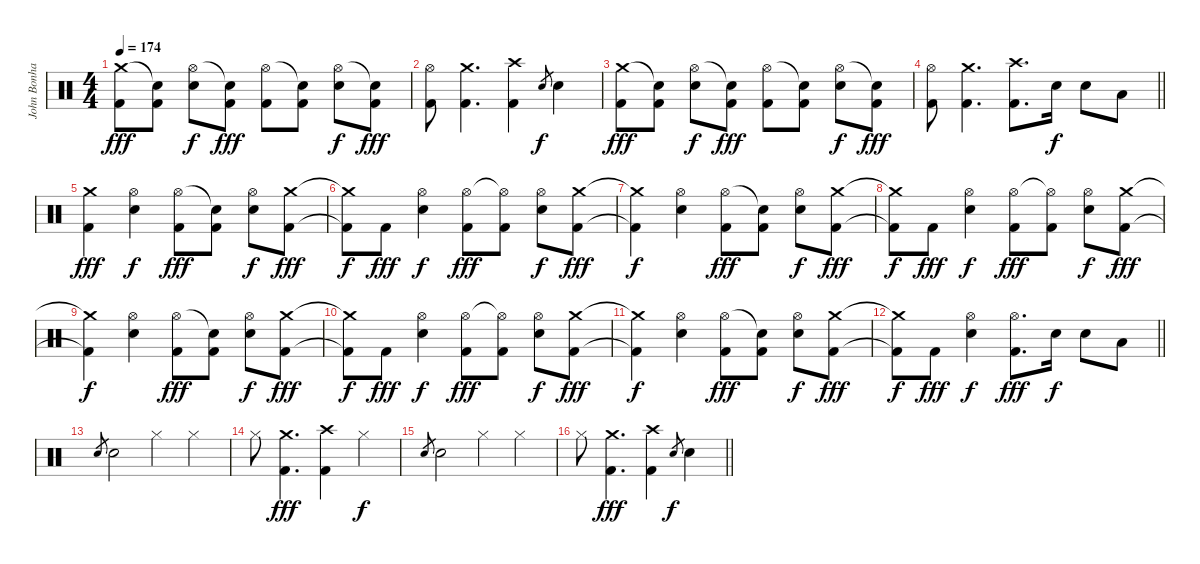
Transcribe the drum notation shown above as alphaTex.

\track ("John Bonham - Drums" "John Bonha") {instrument percussion}
\staff {score}
\articulation defaults
\ts (4 4)
\tempo 174
\clef neutral
\ks c
("Crash medium (hit)" "Kick (hit) 2").8{dy fff} ("Snare (hit)"{t} "Kick (hit) 2").8 ("Hi-Hat (open)" "Snare (hit) 2").8{dy f} ("Snare (hit)"{t} "Kick (hit) 2").8{dy fff} ("Hi-Hat (open)" "Kick (hit) 2").8 ("Snare (hit)"{t} "Kick (hit) 2").8 ("Hi-Hat (open)" "Snare (hit) 2").8{dy f} ("Snare (hit)"{t} "Kick (hit) 2").8{dy fff} |
("Hi-Hat (open)" "Kick (hit) 2").8 ("Crash medium (hit)" "Kick (hit) 2").4{d} ("Crash high (hit)" "Kick (hit) 2").4 "Snare (hit) 2".8{gr dy f} "Snare (hit) 2".4 |
("Crash medium (hit)" "Kick (hit) 2").8{dy fff} ("Snare (hit)"{t} "Kick (hit) 2").8 ("Hi-Hat (open)" "Snare (hit) 2").8{dy f} ("Snare (hit)"{t} "Kick (hit) 2").8{dy fff} ("Hi-Hat (open)" "Kick (hit) 2").8 ("Snare (hit)"{t} "Kick (hit) 2").8 ("Hi-Hat (open)" "Snare (hit) 2").8{dy f} ("Snare (hit)"{t} "Kick (hit) 2").8{dy fff} |
\barLineRight lightlight
("Hi-Hat (open)" "Kick (hit) 2").8 ("Crash medium (hit)" "Kick (hit) 2").4{d} ("Crash high (hit)" "Kick (hit) 2").8{d} "Snare (hit) 2".16{dy f} "Snare (hit) 2".8 "Low Tom (hit)".8 |
("Crash medium (hit)" "Kick (hit) 2").4{dy fff} ("Hi-Hat (open)" "Snare (hit) 2").4{dy f} ("Hi-Hat (open)" "Kick (hit) 2").8{dy fff} ("Snare (hit)"{t} "Kick (hit) 2").8 ("Hi-Hat (open)" "Snare (hit) 2").8{dy f} ("Crash medium (hit)" "Kick (hit) 2").8{dy fff} |
("Crash medium (hit)"{t} "Kick (hit) 2"{t}).8{dy f} "Kick (hit) 2".8{dy fff} ("Hi-Hat (open)" "Snare (hit) 2").4{dy f} ("Hi-Hat (open)" "Kick (hit) 2").8{dy fff} ("Hi-Hat (open)"{t} "Kick (hit) 2").8 ("Hi-Hat (open)" "Snare (hit) 2").8{dy f} ("Crash medium (hit)" "Kick (hit) 2").8{dy fff} |
("Crash medium (hit)"{t} "Kick (hit) 2"{t}).4{dy f} ("Hi-Hat (open)" "Snare (hit) 2").4 ("Hi-Hat (open)" "Kick (hit) 2").8{dy fff} ("Snare (hit)"{t} "Kick (hit) 2").8 ("Hi-Hat (open)" "Snare (hit) 2").8{dy f} ("Crash medium (hit)" "Kick (hit) 2").8{dy fff} |
("Crash medium (hit)"{t} "Kick (hit) 2"{t}).8{dy f} "Kick (hit) 2".8{dy fff} ("Hi-Hat (open)" "Snare (hit) 2").4{dy f} ("Hi-Hat (open)" "Kick (hit) 2").8{dy fff} ("Hi-Hat (open)"{t} "Kick (hit) 2").8 ("Hi-Hat (open)" "Snare (hit) 2").8{dy f} ("Crash medium (hit)" "Kick (hit) 2").8{dy fff} |
("Crash medium (hit)"{t} "Kick (hit) 2"{t}).4{dy f} ("Hi-Hat (open)" "Snare (hit) 2").4 ("Hi-Hat (open)" "Kick (hit) 2").8{dy fff} ("Snare (hit)"{t} "Kick (hit) 2").8 ("Hi-Hat (open)" "Snare (hit) 2").8{dy f} ("Crash medium (hit)" "Kick (hit) 2").8{dy fff} |
("Crash medium (hit)"{t} "Kick (hit) 2"{t}).8{dy f} "Kick (hit) 2".8{dy fff} ("Hi-Hat (open)" "Snare (hit) 2").4{dy f} ("Hi-Hat (open)" "Kick (hit) 2").8{dy fff} ("Hi-Hat (open)"{t} "Kick (hit) 2").8 ("Hi-Hat (open)" "Snare (hit) 2").8{dy f} ("Crash medium (hit)" "Kick (hit) 2").8{dy fff} |
("Crash medium (hit)"{t} "Kick (hit) 2"{t}).4{dy f} ("Hi-Hat (open)" "Snare (hit) 2").4 ("Hi-Hat (open)" "Kick (hit) 2").8{dy fff} ("Snare (hit)"{t} "Kick (hit) 2").8 ("Hi-Hat (open)" "Snare (hit) 2").8{dy f} ("Crash medium (hit)" "Kick (hit) 2").8{dy fff} |
\barLineRight lightlight
("Crash medium (hit)"{t} "Kick (hit) 2"{t}).8{dy f} "Kick (hit) 2".8{dy fff} ("Hi-Hat (open)" "Snare (hit) 2").4{dy f} ("Hi-Hat (open)" "Kick (hit) 2").8{d dy fff} "Snare (hit) 2".16{dy f} "Snare (hit) 2".8 "Low Tom (hit)".8 |
"Snare (hit) 2".8{gr} "Snare (hit) 2".2 "Hi-Hat (closed)".4 "Hi-Hat (closed)".4 |
"Hi-Hat (closed)".8 ("Crash medium (hit)" "Kick (hit) 2").4{d dy fff} ("Crash high (hit)" "Kick (hit) 2").4 "Hi-Hat (closed)".4{dy f} |
"Snare (hit) 2".8{gr} "Snare (hit) 2".2 "Hi-Hat (closed)".4 "Hi-Hat (closed)".4 |
\barLineRight lightlight "Hi-Hat (closed)".8
("Crash medium (hit)" "Kick (hit) 2").4{d dy fff} ("Crash high (hit)" "Kick (hit) 2").4 "Snare (hit) 2".8{gr dy f} "Snare (hit) 2".4
